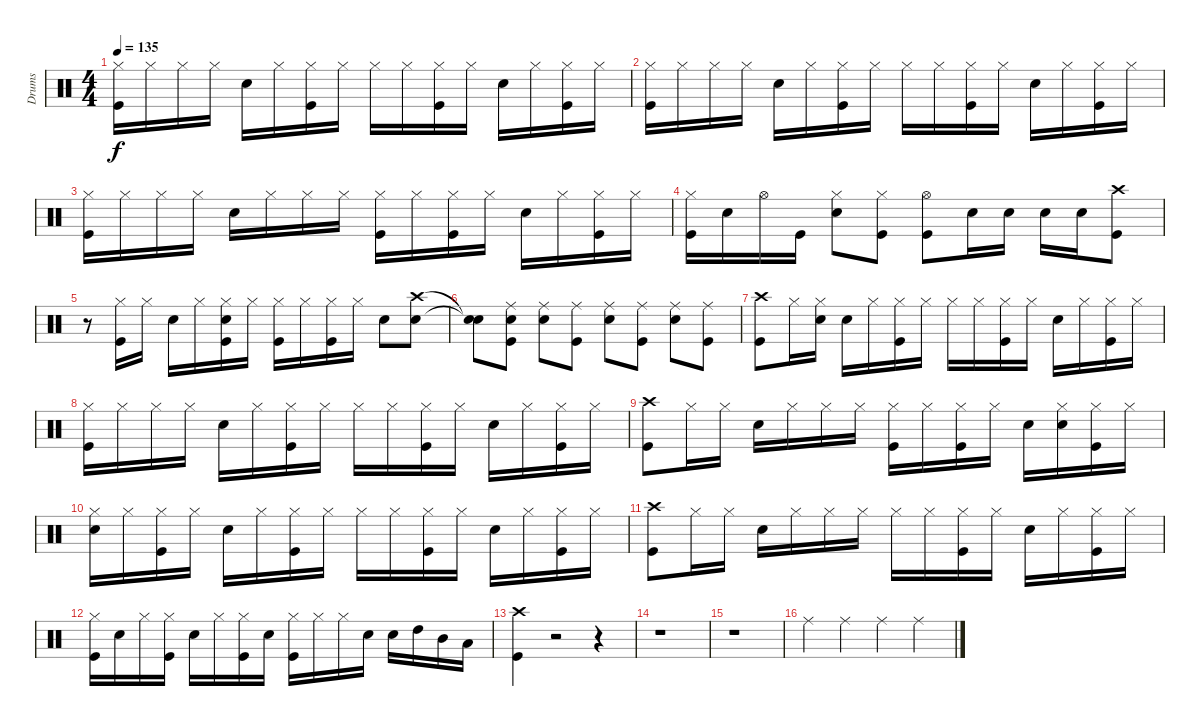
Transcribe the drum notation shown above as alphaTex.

\track ("Drums" "Drums") {instrument percussion}
\staff {score}
\articulation defaults
\ts (4 4)
\tempo 135
\clef neutral
\ks c
("Kick (hit)" "Hi-Hat (closed)").16{dy f} "Hi-Hat (closed)".16 "Hi-Hat (closed)".16 "Hi-Hat (closed)".16 "Electric Snare (hit)".16 "Hi-Hat (closed)".16 ("Kick (hit)" "Hi-Hat (closed)").16 "Hi-Hat (closed)".16 "Hi-Hat (closed)".16 "Hi-Hat (closed)".16 ("Kick (hit)" "Hi-Hat (closed)").16 "Hi-Hat (closed)".16 "Electric Snare (hit)".16 "Hi-Hat (closed)".16 ("Kick (hit)" "Hi-Hat (closed)").16 "Hi-Hat (closed)".16 |
("Kick (hit)" "Hi-Hat (closed)").16 "Hi-Hat (closed)".16 "Hi-Hat (closed)".16 "Hi-Hat (closed)".16 "Electric Snare (hit)".16 "Hi-Hat (closed)".16 ("Kick (hit)" "Hi-Hat (closed)").16 "Hi-Hat (closed)".16 "Hi-Hat (closed)".16 "Hi-Hat (closed)".16 ("Kick (hit)" "Hi-Hat (closed)").16 "Hi-Hat (closed)".16 "Electric Snare (hit)".16 "Hi-Hat (closed)".16 ("Kick (hit)" "Hi-Hat (closed)").16 "Hi-Hat (closed)".16 |
("Kick (hit)" "Hi-Hat (closed)").16 "Hi-Hat (closed)".16 "Hi-Hat (closed)".16 "Hi-Hat (closed)".16 "Electric Snare (hit)".16 "Hi-Hat (closed)".16 "Hi-Hat (closed)".16 "Hi-Hat (closed)".16 ("Kick (hit)" "Hi-Hat (closed)").16 "Hi-Hat (closed)".16 ("Kick (hit)" "Hi-Hat (closed)").16 "Hi-Hat (closed)".16 "Electric Snare (hit)".16 "Hi-Hat (closed)".16 ("Kick (hit)" "Hi-Hat (closed)").16 "Hi-Hat (closed)".16 |
("Kick (hit)" "Hi-Hat (closed)").16 "Electric Snare (hit)".16 "Hi-Hat (open)".16 "Kick (hit)".16 ("Electric Snare (hit)" "Hi-Hat (closed)").8 ("Kick (hit)" "Hi-Hat (closed)").8 ("Kick (hit)" "Hi-Hat (open)").8 "Electric Snare (hit)".16 "Electric Snare (hit)".16 "Electric Snare (hit)".16 "Electric Snare (hit)".16 ("Kick (hit)" "Crash high (hit)").8 |
r.8 ("Kick (hit)" "Hi-Hat (closed)").16 "Hi-Hat (closed)".16 "Electric Snare (hit)".16 "Hi-Hat (closed)".16 ("Snare (hit)" "Kick (hit)" "Hi-Hat (closed)").16 "Hi-Hat (closed)".16 ("Kick (hit)" "Hi-Hat (closed)").16 "Hi-Hat (closed)".16 ("Kick (hit)" "Hi-Hat (closed)").16 "Hi-Hat (closed)".16 "Electric Snare (hit)".8 ("Electric Snare (hit)" "Crash high (hit)").8 |
("Snare (hit)"{t} "Snare (hit)"{t}).8 ("Snare (hit)" "Kick (hit)" "Ride (middle)").8 ("Electric Snare (hit)" "Ride (middle)").8 ("Kick (hit)" "Ride (middle)").8 ("Electric Snare (hit)" "Ride (middle)").8 ("Kick (hit)" "Ride (middle)").8 ("Electric Snare (hit)" "Ride (middle)").8 ("Kick (hit)" "Ride (middle)").8 |
("Kick (hit)" "Crash high (hit)").8 "Hi-Hat (closed)".16 ("Snare (hit)" "Hi-Hat (closed)").16 "Electric Snare (hit)".16 "Hi-Hat (closed)".16 ("Kick (hit)" "Hi-Hat (closed)").16 "Hi-Hat (closed)".16 "Hi-Hat (closed)".16 "Hi-Hat (closed)".16 ("Kick (hit)" "Hi-Hat (closed)").16 "Hi-Hat (closed)".16 "Electric Snare (hit)".16 "Hi-Hat (closed)".16 ("Kick (hit)" "Hi-Hat (closed)").16 "Hi-Hat (closed)".16 |
("Kick (hit)" "Hi-Hat (closed)").16 "Hi-Hat (closed)".16 "Hi-Hat (closed)".16 "Hi-Hat (closed)".16 "Electric Snare (hit)".16 "Hi-Hat (closed)".16 ("Kick (hit)" "Hi-Hat (closed)").16 "Hi-Hat (closed)".16 "Hi-Hat (closed)".16 "Hi-Hat (closed)".16 ("Kick (hit)" "Hi-Hat (closed)").16 "Hi-Hat (closed)".16 "Electric Snare (hit)".16 "Hi-Hat (closed)".16 ("Kick (hit)" "Hi-Hat (closed)").16 "Hi-Hat (closed)".16 |
("Kick (hit)" "Crash high (hit)").8 "Hi-Hat (closed)".16 "Hi-Hat (closed)".16 "Electric Snare (hit)".16 "Hi-Hat (closed)".16 "Hi-Hat (closed)".16 "Hi-Hat (closed)".16 ("Kick (hit)" "Hi-Hat (closed)").16 "Hi-Hat (closed)".16 ("Kick (hit)" "Hi-Hat (closed)").16 "Hi-Hat (closed)".16 "Electric Snare (hit)".16 ("Snare (hit)" "Hi-Hat (closed)").16 ("Kick (hit)" "Hi-Hat (closed)").16 "Hi-Hat (closed)".16 |
("Snare (hit)" "Hi-Hat (closed)").16 "Hi-Hat (closed)".16 ("Kick (hit)" "Hi-Hat (closed)").16 "Hi-Hat (closed)".16 "Electric Snare (hit)".16 "Hi-Hat (closed)".16 ("Kick (hit)" "Hi-Hat (closed)").16 "Hi-Hat (closed)".16 "Hi-Hat (closed)".16 "Hi-Hat (closed)".16 ("Kick (hit)" "Hi-Hat (closed)").16 "Hi-Hat (closed)".16 "Electric Snare (hit)".16 "Hi-Hat (closed)".16 ("Kick (hit)" "Hi-Hat (closed)").16 "Hi-Hat (closed)".16 |
("Kick (hit)" "Crash high (hit)").8 "Hi-Hat (closed)".16 "Hi-Hat (closed)".16 "Electric Snare (hit)".16 "Hi-Hat (closed)".16 "Hi-Hat (closed)".16 "Hi-Hat (closed)".16 "Hi-Hat (closed)".16 "Hi-Hat (closed)".16 ("Kick (hit)" "Hi-Hat (closed)").16 "Hi-Hat (closed)".16 "Electric Snare (hit)".16 "Hi-Hat (closed)".16 ("Kick (hit)" "Hi-Hat (closed)").16 "Hi-Hat (closed)".16 |
("Kick (hit)" "Hi-Hat (closed)").16 "Electric Snare (hit)".16 "Hi-Hat (closed)".16 ("Kick (hit)" "Hi-Hat (closed)").16 "Electric Snare (hit)".16 "Hi-Hat (closed)".16 ("Kick (hit)" "Hi-Hat (closed)").16 "Electric Snare (hit)".16 ("Kick (hit)" "Hi-Hat (closed)").16 "Hi-Hat (closed)".16 "Hi-Hat (closed)".16 "Electric Snare (hit)".16 "Electric Snare (hit)".16 "High Tom (hit)".16 "Mid Tom (hit)".16 "Low Tom (hit)".16 |
("Kick (hit)" "Crash high (hit)").4 r.2 r.4 |
r.1 |
r.1 |
"Ride (middle)".4 "Ride (middle)".4 "Ride (middle)".4 "Ride (middle)".4
